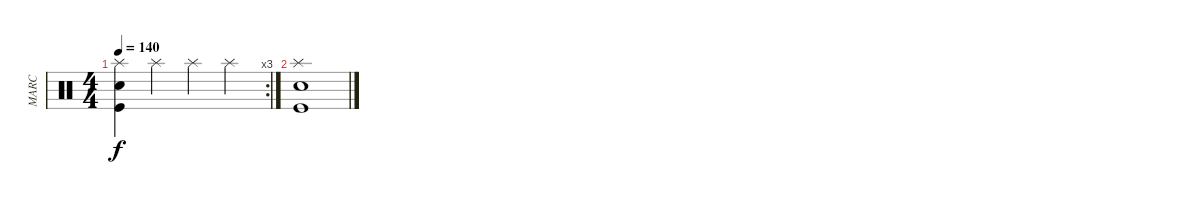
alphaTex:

\track ("MARC" "MARC") {instrument percussion}
\staff {score}
\articulation defaults
\rc 3
\ts (4 4)
\tempo 140
\clef neutral
\ks c
("Snare (hit) 2" "Kick (hit)" "Splash (hit)").4{dy f} "Splash (hit)".4 "Splash (hit)".4 "Splash (hit)".4 |
("Kick (hit)" "Snare (hit) 2" "Splash (hit)").1
